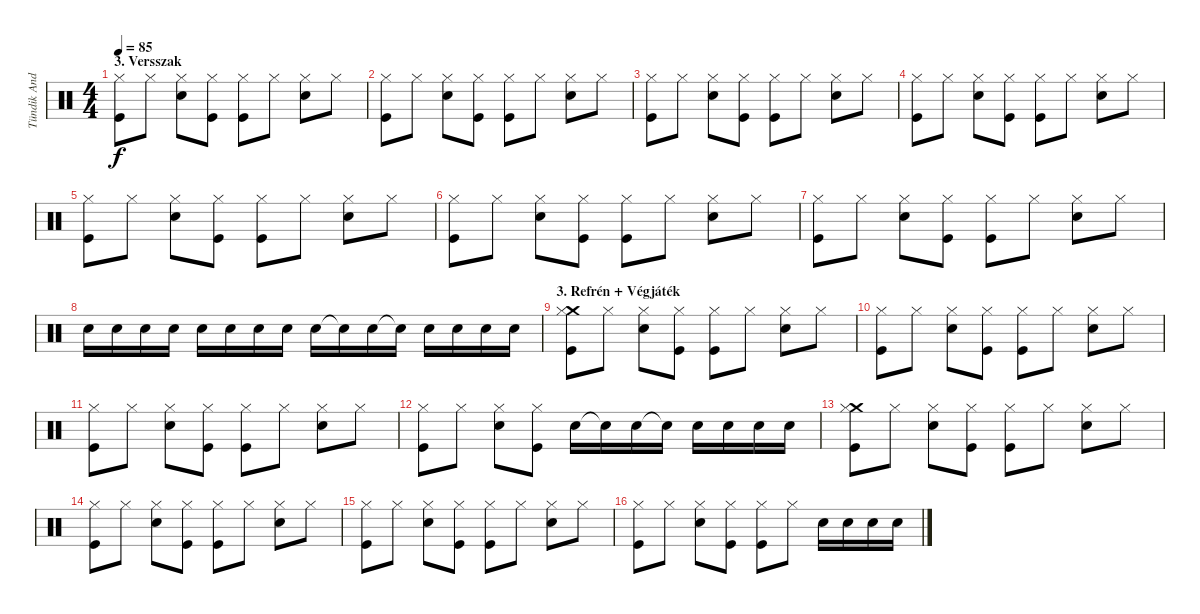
\track ("Tündik András - Dob" "Tündik And") {instrument percussion}
\staff {score}
\articulation defaults
\ts (4 4)
\section ("" "3. Versszak")
\tempo 85
\clef neutral
\ks c
("Hi-Hat (closed)" "Kick (hit)").8{dy f} "Hi-Hat (closed)".8 ("Snare (hit) 2" "Hi-Hat (closed)").8 ("Hi-Hat (closed)" "Kick (hit)").8 ("Hi-Hat (closed)" "Kick (hit)").8 "Hi-Hat (closed)".8 ("Snare (hit) 2" "Hi-Hat (closed)").8 "Hi-Hat (closed)".8 |
("Hi-Hat (closed)" "Kick (hit)").8 "Hi-Hat (closed)".8 ("Snare (hit) 2" "Hi-Hat (closed)").8 ("Hi-Hat (closed)" "Kick (hit)").8 ("Hi-Hat (closed)" "Kick (hit)").8 "Hi-Hat (closed)".8 ("Snare (hit) 2" "Hi-Hat (closed)").8 "Hi-Hat (closed)".8 |
("Hi-Hat (closed)" "Kick (hit)").8 "Hi-Hat (closed)".8 ("Snare (hit) 2" "Hi-Hat (closed)").8 ("Hi-Hat (closed)" "Kick (hit)").8 ("Hi-Hat (closed)" "Kick (hit)").8 "Hi-Hat (closed)".8 ("Snare (hit) 2" "Hi-Hat (closed)").8 "Hi-Hat (closed)".8 |
("Hi-Hat (closed)" "Kick (hit)").8 "Hi-Hat (closed)".8 ("Snare (hit) 2" "Hi-Hat (closed)").8 ("Hi-Hat (closed)" "Kick (hit)").8 ("Hi-Hat (closed)" "Kick (hit)").8 "Hi-Hat (closed)".8 ("Snare (hit) 2" "Hi-Hat (closed)").8 "Hi-Hat (closed)".8 |
("Hi-Hat (closed)" "Kick (hit)").8 "Hi-Hat (closed)".8 ("Snare (hit) 2" "Hi-Hat (closed)").8 ("Hi-Hat (closed)" "Kick (hit)").8 ("Hi-Hat (closed)" "Kick (hit)").8 "Hi-Hat (closed)".8 ("Snare (hit) 2" "Hi-Hat (closed)").8 "Hi-Hat (closed)".8 |
("Hi-Hat (closed)" "Kick (hit)").8 "Hi-Hat (closed)".8 ("Snare (hit) 2" "Hi-Hat (closed)").8 ("Hi-Hat (closed)" "Kick (hit)").8 ("Hi-Hat (closed)" "Kick (hit)").8 "Hi-Hat (closed)".8 ("Snare (hit) 2" "Hi-Hat (closed)").8 "Hi-Hat (closed)".8 |
("Hi-Hat (closed)" "Kick (hit)").8 "Hi-Hat (closed)".8 ("Snare (hit) 2" "Hi-Hat (closed)").8 ("Hi-Hat (closed)" "Kick (hit)").8 ("Hi-Hat (closed)" "Kick (hit)").8 "Hi-Hat (closed)".8 ("Snare (hit) 2" "Hi-Hat (closed)").8 "Hi-Hat (closed)".8 |
"Electric Snare (hit)".16 "Snare (hit) 2".16 "Electric Snare (hit)".16 "Snare (hit) 2".16 "Snare (hit) 2".16 "Snare (hit) 2".16 "Snare (hit) 2".16 "Snare (hit) 2".16 "Snare (hit) 2".16 "Snare (hit) 2"{t}.16 "Snare (hit) 2".16 "Snare (hit) 2"{t}.16 "Snare (hit) 2".16 "Snare (hit) 2".16 "Snare (hit) 2".16 "Snare (hit) 2".16 |
\section ("" "3. Refrén + Végjáték")
("Crash medium (hit)" "Hi-Hat (closed)" "Kick (hit)").8 "Hi-Hat (closed)".8 ("Snare (hit) 2" "Hi-Hat (closed)").8 ("Hi-Hat (closed)" "Kick (hit)").8 ("Hi-Hat (closed)" "Kick (hit)").8 "Hi-Hat (closed)".8 ("Snare (hit) 2" "Hi-Hat (closed)").8 "Hi-Hat (closed)".8 |
("Hi-Hat (closed)" "Kick (hit)").8 "Hi-Hat (closed)".8 ("Snare (hit) 2" "Hi-Hat (closed)").8 ("Hi-Hat (closed)" "Kick (hit)").8 ("Hi-Hat (closed)" "Kick (hit)").8 "Hi-Hat (closed)".8 ("Snare (hit) 2" "Hi-Hat (closed)").8 "Hi-Hat (closed)".8 |
("Hi-Hat (closed)" "Kick (hit)").8 "Hi-Hat (closed)".8 ("Snare (hit) 2" "Hi-Hat (closed)").8 ("Hi-Hat (closed)" "Kick (hit)").8 ("Hi-Hat (closed)" "Kick (hit)").8 "Hi-Hat (closed)".8 ("Snare (hit) 2" "Hi-Hat (closed)").8 "Hi-Hat (closed)".8 |
("Hi-Hat (closed)" "Kick (hit)").8 "Hi-Hat (closed)".8 ("Snare (hit) 2" "Hi-Hat (closed)").8 ("Hi-Hat (closed)" "Kick (hit)").8 "Snare (hit) 2".16 "Snare (hit) 2"{t}.16 "Snare (hit) 2".16 "Snare (hit)"{t}.16 "Snare (hit) 2".16 "Snare (hit) 2".16 "Snare (hit) 2".16 "Snare (hit) 2".16 |
("Crash medium (hit)" "Hi-Hat (closed)" "Kick (hit)").8 "Hi-Hat (closed)".8 ("Snare (hit) 2" "Hi-Hat (closed)").8 ("Hi-Hat (closed)" "Kick (hit)").8 ("Hi-Hat (closed)" "Kick (hit)").8 "Hi-Hat (closed)".8 ("Snare (hit) 2" "Hi-Hat (closed)").8 "Hi-Hat (closed)".8 |
("Hi-Hat (closed)" "Kick (hit)").8 "Hi-Hat (closed)".8 ("Snare (hit) 2" "Hi-Hat (closed)").8 ("Hi-Hat (closed)" "Kick (hit)").8 ("Hi-Hat (closed)" "Kick (hit)").8 "Hi-Hat (closed)".8 ("Snare (hit) 2" "Hi-Hat (closed)").8 "Hi-Hat (closed)".8 |
("Hi-Hat (closed)" "Kick (hit)").8 "Hi-Hat (closed)".8 ("Snare (hit) 2" "Hi-Hat (closed)").8 ("Hi-Hat (closed)" "Kick (hit)").8 ("Hi-Hat (closed)" "Kick (hit)").8 "Hi-Hat (closed)".8 ("Snare (hit) 2" "Hi-Hat (closed)").8 "Hi-Hat (closed)".8 |
("Hi-Hat (closed)" "Kick (hit)").8 "Hi-Hat (closed)".8 ("Snare (hit) 2" "Hi-Hat (closed)").8 ("Hi-Hat (closed)" "Kick (hit)").8 ("Hi-Hat (closed)" "Kick (hit)").8 "Hi-Hat (closed)".8 "Snare (hit) 2".16 "Snare (hit) 2".16 "Snare (hit) 2".16 "Snare (hit) 2".16
